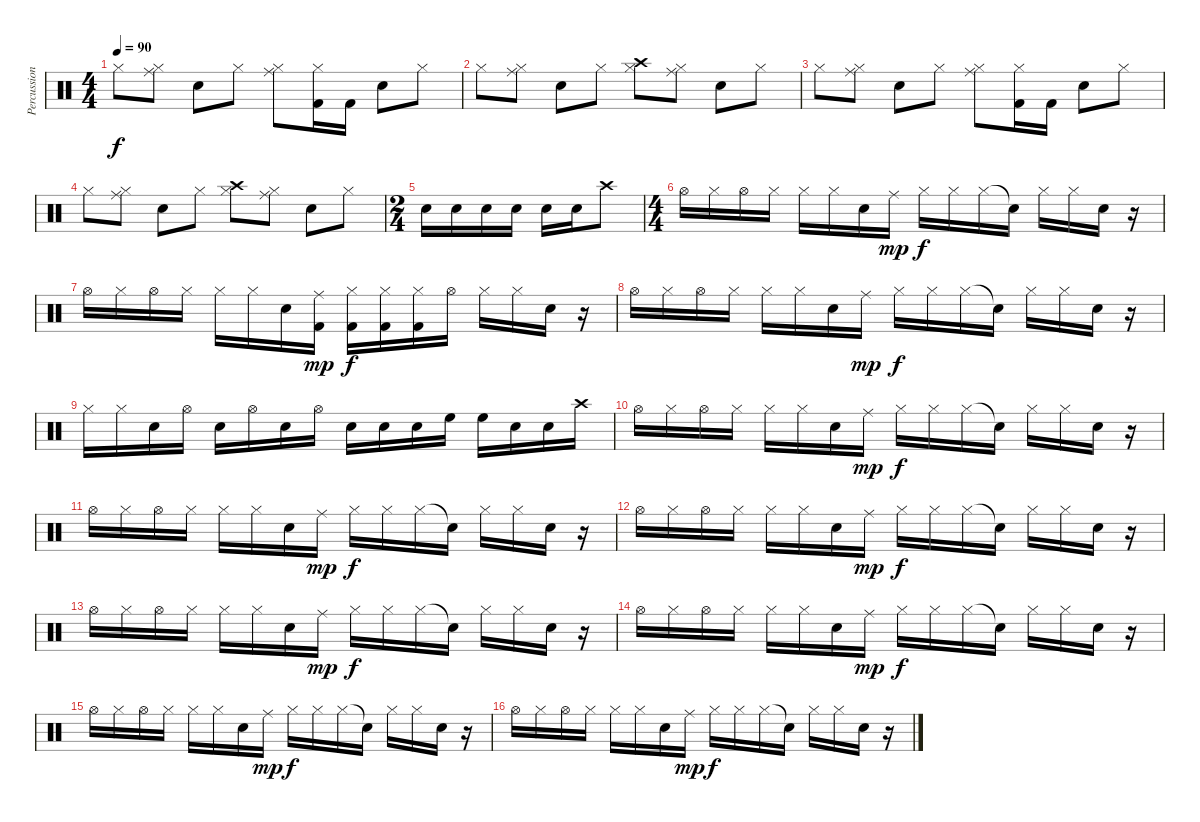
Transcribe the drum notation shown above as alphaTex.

\track ("Percussioni" "Percussion") {instrument percussion}
\staff {score}
\articulation defaults
\ts (4 4)
\tempo 90
\clef neutral
\ks c "Hi-Hat (closed)".8{dy f}
("Ride (middle)" "Hi-Hat (closed)").8 "Snare (hit) 2".8 "Hi-Hat (closed)".8 ("Ride (middle)" "Hi-Hat (closed)").8 ("Hi-Hat (closed)" "Kick (hit) 2").16 "Kick (hit) 2".16 "Snare (hit) 2".8 "Hi-Hat (closed)".8 |
"Hi-Hat (closed)".8 ("Ride (middle)" "Hi-Hat (closed)").8 "Snare (hit) 2".8 "Hi-Hat (closed)".8 ("Crash high (hit)" "Hi-Hat (closed)").8 ("Ride (middle)" "Hi-Hat (closed)").8 "Snare (hit) 2".8 "Hi-Hat (closed)".8 |
"Hi-Hat (closed)".8 ("Ride (middle)" "Hi-Hat (closed)").8 "Snare (hit) 2".8 "Hi-Hat (closed)".8 ("Ride (middle)" "Hi-Hat (closed)").8 ("Hi-Hat (closed)" "Kick (hit) 2").16 "Kick (hit) 2".16 "Snare (hit) 2".8 "Hi-Hat (closed)".8 |
"Hi-Hat (closed)".8 ("Ride (middle)" "Hi-Hat (closed)").8 "Snare (hit) 2".8 "Hi-Hat (closed)".8 ("Crash high (hit)" "Hi-Hat (closed)").8 ("Ride (middle)" "Hi-Hat (closed)").8 "Snare (hit) 2".8 "Hi-Hat (closed)".8 |
\ts (2 4)
"Snare (hit) 2".16 "Snare (hit) 2".16 "Snare (hit) 2".16 "Snare (hit) 2".16 "Snare (hit) 2".16 "Snare (hit) 2".16 "Crash high (hit)".8 |
\ts (4 4)
"Hi-Hat (open)".16 "Hi-Hat (closed)".16 "Hi-Hat (open)".16 "Hi-Hat (closed)".16 "Hi-Hat (closed)".16 "Hi-Hat (closed)".16 "Snare (hit) 2".16 "Ride (middle)".16{dy mp} "Hi-Hat (closed)".16{dy f} "Hi-Hat (closed)".16 "Hi-Hat (closed)".16 "Snare (hit)"{t}.16 "Hi-Hat (closed)".16 "Hi-Hat (closed)".16 "Snare (hit) 2".16 r.16 |
"Hi-Hat (open)".16 "Hi-Hat (closed)".16 "Hi-Hat (open)".16 "Hi-Hat (closed)".16 "Hi-Hat (closed)".16 "Hi-Hat (closed)".16 "Snare (hit) 2".16 ("Ride (middle)" "Kick (hit) 2").16{dy mp} ("Hi-Hat (closed)" "Kick (hit) 2").16{dy f} ("Hi-Hat (closed)" "Kick (hit) 2").16 ("Hi-Hat (closed)" "Kick (hit) 2").16 "Hi-Hat (open)".16 "Hi-Hat (closed)".16 "Hi-Hat (closed)".16 "Snare (hit) 2".16 r.16 |
"Hi-Hat (open)".16 "Hi-Hat (closed)".16 "Hi-Hat (open)".16 "Hi-Hat (closed)".16 "Hi-Hat (closed)".16 "Hi-Hat (closed)".16 "Snare (hit) 2".16 "Ride (middle)".16{dy mp} "Hi-Hat (closed)".16{dy f} "Hi-Hat (closed)".16 "Hi-Hat (closed)".16 "Snare (hit)"{t}.16 "Hi-Hat (closed)".16 "Hi-Hat (closed)".16 "Snare (hit) 2".16 r.16 |
"Hi-Hat (closed)".16 "Hi-Hat (closed)".16 "Snare (hit) 2".16 "Hi-Hat (open)".16 "Snare (hit) 2".16 "Hi-Hat (open)".16 "Snare (hit) 2".16 "Hi-Hat (open)".16 "Snare (hit) 2".16 "Snare (hit) 2".16 "Snare (hit) 2".16 "High Floor Tom (hit)".16 "High Floor Tom (hit)".16 "Snare (hit) 2".16 "Snare (hit) 2".16 "Crash high (hit)".16 |
"Hi-Hat (open)".16 "Hi-Hat (closed)".16 "Hi-Hat (open)".16 "Hi-Hat (closed)".16 "Hi-Hat (closed)".16 "Hi-Hat (closed)".16 "Snare (hit) 2".16 "Ride (middle)".16{dy mp} "Hi-Hat (closed)".16{dy f} "Hi-Hat (closed)".16 "Hi-Hat (closed)".16 "Snare (hit)"{t}.16 "Hi-Hat (closed)".16 "Hi-Hat (closed)".16 "Snare (hit) 2".16 r.16 |
"Hi-Hat (open)".16 "Hi-Hat (closed)".16 "Hi-Hat (open)".16 "Hi-Hat (closed)".16 "Hi-Hat (closed)".16 "Hi-Hat (closed)".16 "Snare (hit) 2".16 "Ride (middle)".16{dy mp} "Hi-Hat (closed)".16{dy f} "Hi-Hat (closed)".16 "Hi-Hat (closed)".16 "Snare (hit)"{t}.16 "Hi-Hat (closed)".16 "Hi-Hat (closed)".16 "Snare (hit) 2".16 r.16 |
"Hi-Hat (open)".16 "Hi-Hat (closed)".16 "Hi-Hat (open)".16 "Hi-Hat (closed)".16 "Hi-Hat (closed)".16 "Hi-Hat (closed)".16 "Snare (hit) 2".16 "Ride (middle)".16{dy mp} "Hi-Hat (closed)".16{dy f} "Hi-Hat (closed)".16 "Hi-Hat (closed)".16 "Snare (hit)"{t}.16 "Hi-Hat (closed)".16 "Hi-Hat (closed)".16 "Snare (hit) 2".16 r.16 |
"Hi-Hat (open)".16 "Hi-Hat (closed)".16 "Hi-Hat (open)".16 "Hi-Hat (closed)".16 "Hi-Hat (closed)".16 "Hi-Hat (closed)".16 "Snare (hit) 2".16 "Ride (middle)".16{dy mp} "Hi-Hat (closed)".16{dy f} "Hi-Hat (closed)".16 "Hi-Hat (closed)".16 "Snare (hit)"{t}.16 "Hi-Hat (closed)".16 "Hi-Hat (closed)".16 "Snare (hit) 2".16 r.16 |
"Hi-Hat (open)".16 "Hi-Hat (closed)".16 "Hi-Hat (open)".16 "Hi-Hat (closed)".16 "Hi-Hat (closed)".16 "Hi-Hat (closed)".16 "Snare (hit) 2".16 "Ride (middle)".16{dy mp} "Hi-Hat (closed)".16{dy f} "Hi-Hat (closed)".16 "Hi-Hat (closed)".16 "Snare (hit)"{t}.16 "Hi-Hat (closed)".16 "Hi-Hat (closed)".16 "Snare (hit) 2".16 r.16 |
"Hi-Hat (open)".16 "Hi-Hat (closed)".16 "Hi-Hat (open)".16 "Hi-Hat (closed)".16 "Hi-Hat (closed)".16 "Hi-Hat (closed)".16 "Snare (hit) 2".16 "Ride (middle)".16{dy mp} "Hi-Hat (closed)".16{dy f} "Hi-Hat (closed)".16 "Hi-Hat (closed)".16 "Snare (hit)"{t}.16 "Hi-Hat (closed)".16 "Hi-Hat (closed)".16 "Snare (hit) 2".16 r.16 |
"Hi-Hat (open)".16 "Hi-Hat (closed)".16 "Hi-Hat (open)".16 "Hi-Hat (closed)".16 "Hi-Hat (closed)".16 "Hi-Hat (closed)".16 "Snare (hit) 2".16 "Ride (middle)".16{dy mp} "Hi-Hat (closed)".16{dy f} "Hi-Hat (closed)".16 "Hi-Hat (closed)".16 "Snare (hit)"{t}.16 "Hi-Hat (closed)".16 "Hi-Hat (closed)".16 "Snare (hit) 2".16 r.16
